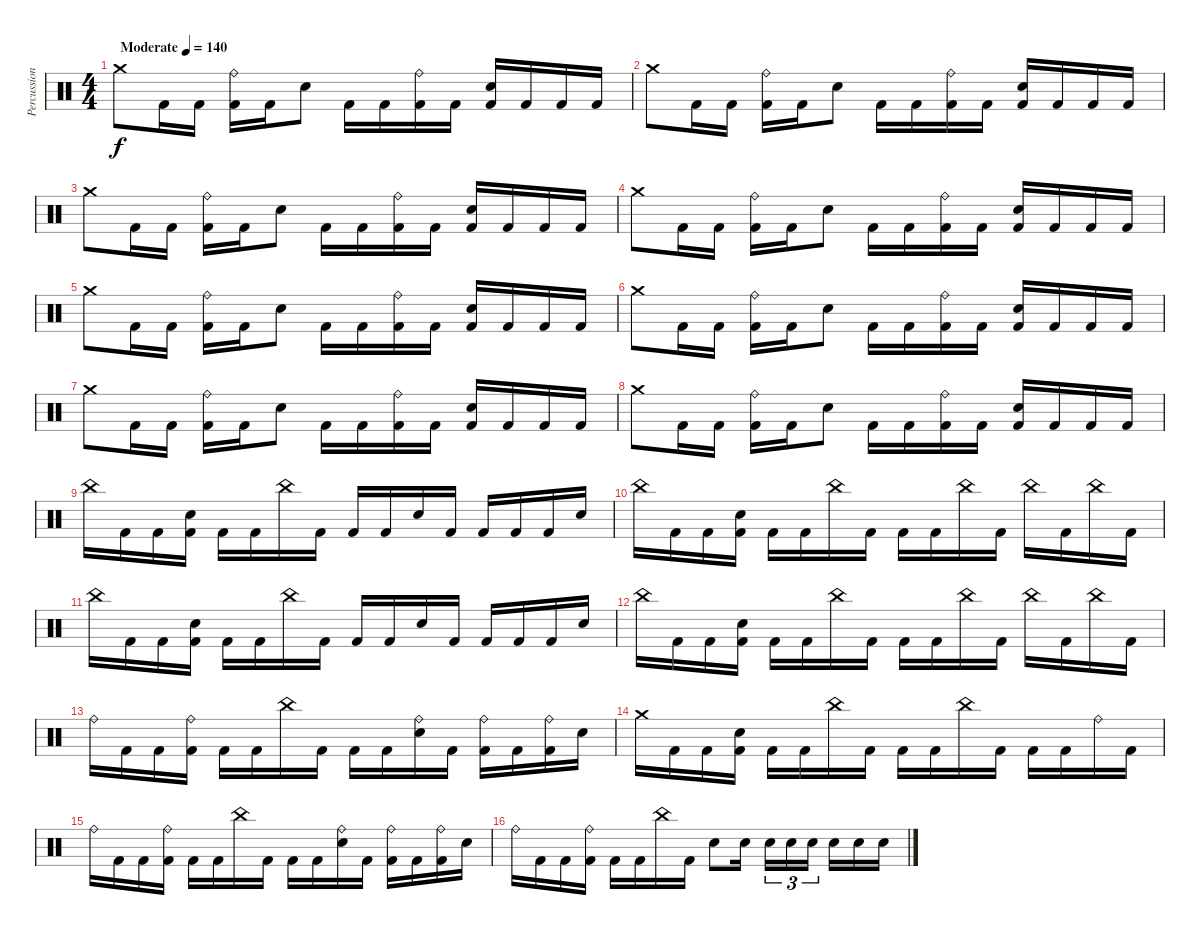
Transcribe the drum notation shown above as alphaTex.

\track ("Percussion" "Percussion") {instrument percussion}
\staff {score}
\articulation defaults
\ts (4 4)
\tempo (140 "Moderate")
\clef neutral
\ks c "Crash medium (hit)".8{dy f} "Kick (hit) 2".16 "Kick (hit) 2".16
("Ride (bell)" "Kick (hit) 2").16 "Kick (hit) 2".16 "Snare (hit) 2".8 "Kick (hit) 2".16 "Kick (hit) 2".16 ("Ride (bell)" "Kick (hit) 2").16 "Kick (hit) 2".16 ("Snare (hit) 2" "Kick (hit) 2").16 "Kick (hit) 2".16 "Kick (hit) 2".16 "Kick (hit) 2".16 |
"Crash medium (hit)".8 "Kick (hit) 2".16 "Kick (hit) 2".16 ("Ride (bell)" "Kick (hit) 2").16 "Kick (hit) 2".16 "Snare (hit) 2".8 "Kick (hit) 2".16 "Kick (hit) 2".16 ("Ride (bell)" "Kick (hit) 2").16 "Kick (hit) 2".16 ("Snare (hit) 2" "Kick (hit) 2").16 "Kick (hit) 2".16 "Kick (hit) 2".16 "Kick (hit) 2".16 |
"Crash medium (hit)".8 "Kick (hit) 2".16 "Kick (hit) 2".16 ("Ride (bell)" "Kick (hit) 2").16 "Kick (hit) 2".16 "Snare (hit) 2".8 "Kick (hit) 2".16 "Kick (hit) 2".16 ("Ride (bell)" "Kick (hit) 2").16 "Kick (hit) 2".16 ("Snare (hit) 2" "Kick (hit) 2").16 "Kick (hit) 2".16 "Kick (hit) 2".16 "Kick (hit) 2".16 |
"Crash medium (hit)".8 "Kick (hit) 2".16 "Kick (hit) 2".16 ("Ride (bell)" "Kick (hit) 2").16 "Kick (hit) 2".16 "Snare (hit) 2".8 "Kick (hit) 2".16 "Kick (hit) 2".16 ("Ride (bell)" "Kick (hit) 2").16 "Kick (hit) 2".16 ("Snare (hit) 2" "Kick (hit) 2").16 "Kick (hit) 2".16 "Kick (hit) 2".16 "Kick (hit) 2".16 |
"Crash medium (hit)".8 "Kick (hit) 2".16 "Kick (hit) 2".16 ("Ride (bell)" "Kick (hit) 2").16 "Kick (hit) 2".16 "Snare (hit) 2".8 "Kick (hit) 2".16 "Kick (hit) 2".16 ("Ride (bell)" "Kick (hit) 2").16 "Kick (hit) 2".16 ("Snare (hit) 2" "Kick (hit) 2").16 "Kick (hit) 2".16 "Kick (hit) 2".16 "Kick (hit) 2".16 |
"Crash medium (hit)".8 "Kick (hit) 2".16 "Kick (hit) 2".16 ("Ride (bell)" "Kick (hit) 2").16 "Kick (hit) 2".16 "Snare (hit) 2".8 "Kick (hit) 2".16 "Kick (hit) 2".16 ("Ride (bell)" "Kick (hit) 2").16 "Kick (hit) 2".16 ("Snare (hit) 2" "Kick (hit) 2").16 "Kick (hit) 2".16 "Kick (hit) 2".16 "Kick (hit) 2".16 |
"Crash medium (hit)".8 "Kick (hit) 2".16 "Kick (hit) 2".16 ("Ride (bell)" "Kick (hit) 2").16 "Kick (hit) 2".16 "Snare (hit) 2".8 "Kick (hit) 2".16 "Kick (hit) 2".16 ("Ride (bell)" "Kick (hit) 2").16 "Kick (hit) 2".16 ("Snare (hit) 2" "Kick (hit) 2").16 "Kick (hit) 2".16 "Kick (hit) 2".16 "Kick (hit) 2".16 |
"Crash medium (hit)".8 "Kick (hit) 2".16 "Kick (hit) 2".16 ("Ride (bell)" "Kick (hit) 2").16 "Kick (hit) 2".16 "Snare (hit) 2".8 "Kick (hit) 2".16 "Kick (hit) 2".16 ("Ride (bell)" "Kick (hit) 2").16 "Kick (hit) 2".16 ("Snare (hit) 2" "Kick (hit) 2").16 "Kick (hit) 2".16 "Kick (hit) 2".16 "Kick (hit) 2".16 |
"China (hit)".16 "Kick (hit) 2".16 "Kick (hit) 2".16 ("Snare (hit) 2" "Kick (hit) 2").16 "Kick (hit) 2".16 "Kick (hit) 2".16 "China (hit)".16 "Kick (hit) 2".16 "Kick (hit) 2".16 "Kick (hit) 2".16 "Snare (hit) 2".16 "Kick (hit) 2".16 "Kick (hit) 2".16 "Kick (hit) 2".16 "Kick (hit) 2".16 "Snare (hit) 2".16 |
"China (hit)".16 "Kick (hit) 2".16 "Kick (hit) 2".16 ("Snare (hit) 2" "Kick (hit) 2").16 "Kick (hit) 2".16 "Kick (hit) 2".16 "China (hit)".16 "Kick (hit) 2".16 "Kick (hit) 2".16 "Kick (hit) 2".16 "China (hit)".16 "Kick (hit) 2".16 "China (hit)".16 "Kick (hit) 2".16 "China (hit)".16 "Kick (hit) 2".16 |
"China (hit)".16 "Kick (hit) 2".16 "Kick (hit) 2".16 ("Snare (hit) 2" "Kick (hit) 2").16 "Kick (hit) 2".16 "Kick (hit) 2".16 "China (hit)".16 "Kick (hit) 2".16 "Kick (hit) 2".16 "Kick (hit) 2".16 "Snare (hit) 2".16 "Kick (hit) 2".16 "Kick (hit) 2".16 "Kick (hit) 2".16 "Kick (hit) 2".16 "Snare (hit) 2".16 |
"China (hit)".16 "Kick (hit) 2".16 "Kick (hit) 2".16 ("Snare (hit) 2" "Kick (hit) 2").16 "Kick (hit) 2".16 "Kick (hit) 2".16 "China (hit)".16 "Kick (hit) 2".16 "Kick (hit) 2".16 "Kick (hit) 2".16 "China (hit)".16 "Kick (hit) 2".16 "China (hit)".16 "Kick (hit) 2".16 "China (hit)".16 "Kick (hit) 2".16 |
"Ride (bell)".16 "Kick (hit) 2".16 "Kick (hit) 2".16 ("Ride (bell)" "Kick (hit) 2").16 "Kick (hit) 2".16 "Kick (hit) 2".16 "China (hit)".16 "Kick (hit) 2".16 "Kick (hit) 2".16 "Kick (hit) 2".16 ("Ride (bell)" "Snare (hit) 2").16 "Kick (hit) 2".16 ("Ride (bell)" "Kick (hit) 2").16 "Kick (hit) 2".16 ("Ride (bell)" "Kick (hit) 2").16 "Snare (hit) 2".16 |
"Crash medium (hit)".16 "Kick (hit) 2".16 "Kick (hit) 2".16 ("Snare (hit) 2" "Kick (hit) 2").16 "Kick (hit) 2".16 "Kick (hit) 2".16 "China (hit)".16 "Kick (hit) 2".16 "Kick (hit) 2".16 "Kick (hit) 2".16 "China (hit)".16 "Kick (hit) 2".16 "Kick (hit) 2".16 "Kick (hit) 2".16 "Ride (bell)".16 "Kick (hit) 2".16 |
"Ride (bell)".16 "Kick (hit) 2".16 "Kick (hit) 2".16 ("Ride (bell)" "Kick (hit) 2").16 "Kick (hit) 2".16 "Kick (hit) 2".16 "China (hit)".16 "Kick (hit) 2".16 "Kick (hit) 2".16 "Kick (hit) 2".16 ("Ride (bell)" "Snare (hit) 2").16 "Kick (hit) 2".16 ("Ride (bell)" "Kick (hit) 2").16 "Kick (hit) 2".16 ("Ride (bell)" "Kick (hit) 2").16 "Snare (hit) 2".16 |
"Ride (bell)".16 "Kick (hit) 2".16 "Kick (hit) 2".16 ("Ride (bell)" "Kick (hit) 2").16 "Kick (hit) 2".16 "Kick (hit) 2".16 "China (hit)".16 "Kick (hit) 2".16 "Snare (hit) 2".8 "Snare (hit) 2".16{beam splitsecondary} "Snare (hit) 2".16{tu (3 2)} "Snare (hit) 2".16{tu (3 2)} "Snare (hit) 2".16{tu (3 2) beam splitsecondary} "Snare (hit) 2".16 "Snare (hit) 2".16 "Snare (hit) 2".16
